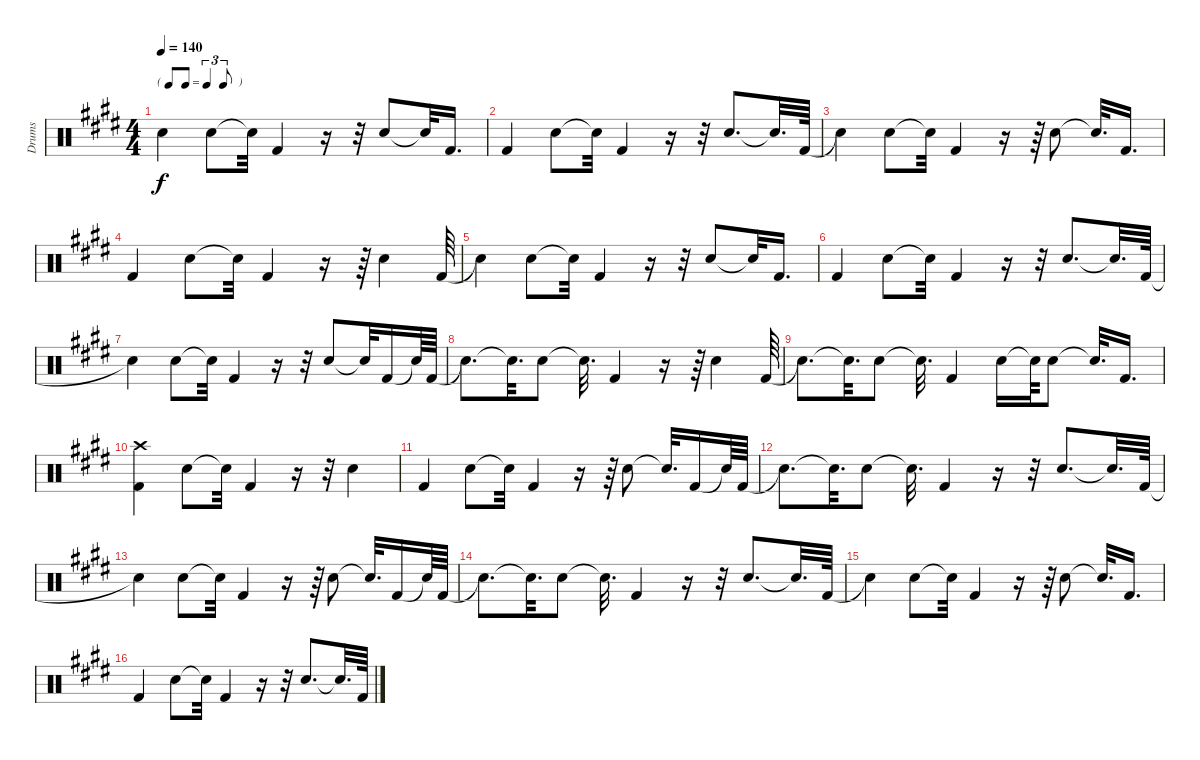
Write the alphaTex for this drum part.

\track ("Drums" "Drums") {instrument percussion}
\staff {score}
\articulation defaults
\ts (4 4)
\tf triplet8th
\tempo 140
\clef neutral
\ks e "Snare (hit)"{t}.4{dy f} "Snare (hit) 2".8 "Snare (hit)"{t}.32 "Kick (hit) 2".4
r.16 r.32 "Snare (hit) 2".8 "Snare (hit)"{t}.32 "Kick (hit) 2".16{d} |
"Kick (hit) 2".4 "Snare (hit) 2".8 "Snare (hit)"{t}.32 "Kick (hit) 2".4 r.16 r.32 "Snare (hit) 2".8{d} "Snare (hit)"{t}.32{d} "Kick (hit) 2".64 |
"Snare (hit)"{t}.4 "Snare (hit) 2".8 "Snare (hit)"{t}.32 "Kick (hit) 2".4 r.16 r.64 "Snare (hit) 2".8 "Snare (hit)"{t}.32{d} "Kick (hit) 2".16{d} |
"Kick (hit) 2".4 "Snare (hit) 2".8 "Snare (hit)"{t}.32 "Kick (hit) 2".4 r.16 r.64 "Snare (hit) 2".4 "Kick (hit) 2".64 |
"Snare (hit)"{t}.4 "Snare (hit) 2".8 "Snare (hit)"{t}.32 "Kick (hit) 2".4 r.16 r.32 "Snare (hit) 2".8 "Snare (hit)"{t}.32 "Kick (hit) 2".16{d} |
"Kick (hit) 2".4 "Snare (hit) 2".8 "Snare (hit)"{t}.32 "Kick (hit) 2".4 r.16 r.32 "Snare (hit) 2".8{d} "Snare (hit)"{t}.32{d} "Kick (hit) 2".64 |
"Snare (hit)"{t}.4 "Snare (hit) 2".8 "Snare (hit)"{t}.32 "Kick (hit) 2".4 r.16 r.32 "Snare (hit) 2".8 "Snare (hit)"{t}.32 "Kick (hit) 2".16 "Snare (hit)"{t}.64 "Kick (hit) 2".64 |
"Snare (hit)"{t}.8{d} "Snare (hit)"{t}.32{d} "Snare (hit) 2".8 "Snare (hit)"{t}.32{d} "Kick (hit) 2".4 r.16 r.64 "Snare (hit) 2".4 "Kick (hit) 2".64 |
"Snare (hit)"{t}.8{d} "Snare (hit)"{t}.32{d} "Snare (hit) 2".8 "Snare (hit)"{t}.32{d} "Kick (hit) 2".4 "Snare (hit) 2".16 "Snare (hit)"{t}.64 "Snare (hit) 2".8 "Snare (hit)"{t}.32{d} "Kick (hit) 2".16{d} |
("Kick (hit) 2" "Crash high (hit)").4 "Snare (hit) 2".8 "Snare (hit)"{t}.32 "Kick (hit) 2".4 r.16 r.32 "Snare (hit) 2".4 |
"Kick (hit) 2".4 "Snare (hit) 2".8 "Snare (hit)"{t}.32 "Kick (hit) 2".4 r.16 r.64 "Snare (hit) 2".8 "Snare (hit)"{t}.32{d} "Kick (hit) 2".16 "Snare (hit)"{t}.64 "Kick (hit) 2".64 |
"Snare (hit)"{t}.8{d} "Snare (hit)"{t}.32{d} "Snare (hit) 2".8 "Snare (hit)"{t}.32{d} "Kick (hit) 2".4 r.16 r.32 "Snare (hit) 2".8{d} "Snare (hit)"{t}.32{d} "Kick (hit) 2".64 |
"Snare (hit)"{t}.4 "Snare (hit) 2".8 "Snare (hit)"{t}.32 "Kick (hit) 2".4 r.16 r.64 "Snare (hit) 2".8 "Snare (hit)"{t}.32{d} "Kick (hit) 2".16 "Snare (hit)"{t}.64 "Kick (hit) 2".64 |
"Snare (hit)"{t}.8{d} "Snare (hit)"{t}.32{d} "Snare (hit) 2".8 "Snare (hit)"{t}.32{d} "Kick (hit) 2".4 r.16 r.32 "Snare (hit) 2".8{d} "Snare (hit)"{t}.32{d} "Kick (hit) 2".64 |
"Snare (hit)"{t}.4 "Snare (hit) 2".8 "Snare (hit)"{t}.32 "Kick (hit) 2".4 r.16 r.64 "Snare (hit) 2".8 "Snare (hit)"{t}.32{d} "Kick (hit) 2".16{d} |
"Kick (hit) 2".4 "Snare (hit) 2".8 "Snare (hit)"{t}.32 "Kick (hit) 2".4 r.16 r.32 "Snare (hit) 2".8{d} "Snare (hit)"{t}.32{d} "Kick (hit) 2".64
